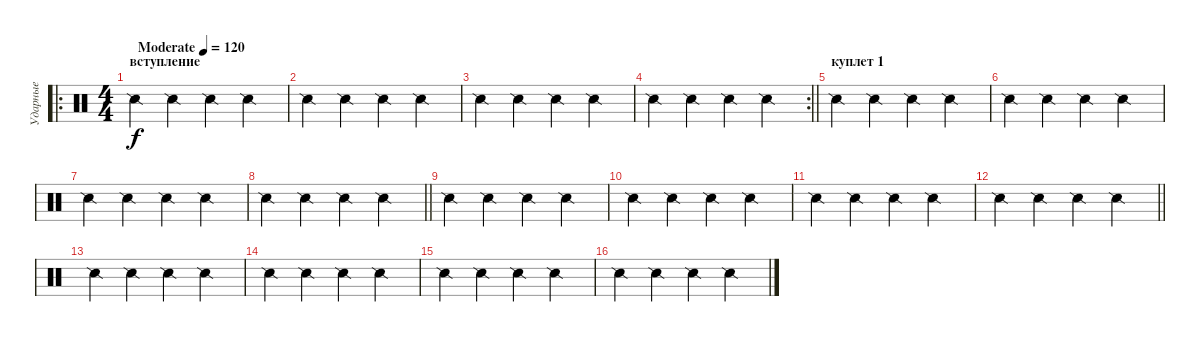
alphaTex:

\track ("Ударные" "Ударные") {mute instrument percussion}
\staff {score}
\articulation defaults
\ro
\ts (4 4)
\section ("" "вступление")
\tempo (120 "Moderate")
\clef neutral
\ks c "Snare (side stick) 2".4{dy f} "Snare (side stick) 2".4 "Snare (side stick) 2".4 "Snare (side stick) 2".4
|
"Snare (side stick) 2".4 "Snare (side stick) 2".4 "Snare (side stick) 2".4 "Snare (side stick) 2".4 |
"Snare (side stick) 2".4 "Snare (side stick) 2".4 "Snare (side stick) 2".4 "Snare (side stick) 2".4 |
\rc 2
\barLineRight lightlight "Snare (side stick) 2".4 "Snare (side stick) 2".4 "Snare (side stick) 2".4 "Snare (side stick) 2".4
|
\section ("" "куплет 1")
"Snare (side stick) 2".4 "Snare (side stick) 2".4 "Snare (side stick) 2".4 "Snare (side stick) 2".4 |
"Snare (side stick) 2".4 "Snare (side stick) 2".4 "Snare (side stick) 2".4 "Snare (side stick) 2".4 |
"Snare (side stick) 2".4 "Snare (side stick) 2".4 "Snare (side stick) 2".4 "Snare (side stick) 2".4 |
\barLineRight lightlight "Snare (side stick) 2".4 "Snare (side stick) 2".4 "Snare (side stick) 2".4 "Snare (side stick) 2".4
|
"Snare (side stick) 2".4 "Snare (side stick) 2".4 "Snare (side stick) 2".4 "Snare (side stick) 2".4 |
"Snare (side stick) 2".4 "Snare (side stick) 2".4 "Snare (side stick) 2".4 "Snare (side stick) 2".4 |
"Snare (side stick) 2".4 "Snare (side stick) 2".4 "Snare (side stick) 2".4 "Snare (side stick) 2".4 |
\barLineRight lightlight "Snare (side stick) 2".4 "Snare (side stick) 2".4 "Snare (side stick) 2".4 "Snare (side stick) 2".4
|
"Snare (side stick) 2".4 "Snare (side stick) 2".4 "Snare (side stick) 2".4 "Snare (side stick) 2".4 |
"Snare (side stick) 2".4 "Snare (side stick) 2".4 "Snare (side stick) 2".4 "Snare (side stick) 2".4 |
"Snare (side stick) 2".4 "Snare (side stick) 2".4 "Snare (side stick) 2".4 "Snare (side stick) 2".4 |
"Snare (side stick) 2".4 "Snare (side stick) 2".4 "Snare (side stick) 2".4 "Snare (side stick) 2".4
